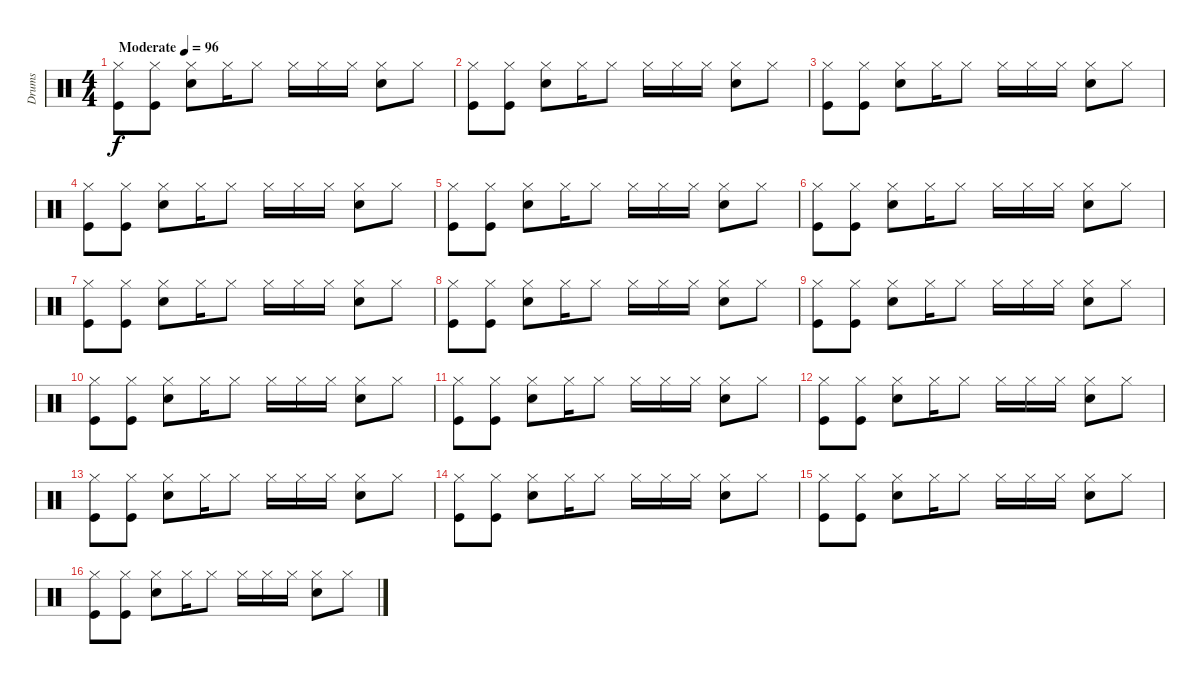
\track ("Drums" "Drums") {instrument percussion}
\staff {score}
\articulation defaults
\ts (4 4)
\tempo (96 "Moderate")
\clef neutral
\ks c
("Kick (hit)" "Hi-Hat (closed)").8{dy f} ("Kick (hit)" "Hi-Hat (closed)").8 ("Electric Snare (hit)" "Hi-Hat (closed)").8 "Hi-Hat (closed)".16 "Hi-Hat (closed)".8 "Hi-Hat (closed)".16 "Hi-Hat (closed)".16 "Hi-Hat (closed)".16 ("Electric Snare (hit)" "Hi-Hat (closed)").8 "Hi-Hat (closed)".8 |
("Kick (hit)" "Hi-Hat (closed)").8 ("Kick (hit)" "Hi-Hat (closed)").8 ("Electric Snare (hit)" "Hi-Hat (closed)").8 "Hi-Hat (closed)".16 "Hi-Hat (closed)".8 "Hi-Hat (closed)".16 "Hi-Hat (closed)".16 "Hi-Hat (closed)".16 ("Electric Snare (hit)" "Hi-Hat (closed)").8 "Hi-Hat (closed)".8 |
("Kick (hit)" "Hi-Hat (closed)").8 ("Kick (hit)" "Hi-Hat (closed)").8 ("Electric Snare (hit)" "Hi-Hat (closed)").8 "Hi-Hat (closed)".16 "Hi-Hat (closed)".8 "Hi-Hat (closed)".16 "Hi-Hat (closed)".16 "Hi-Hat (closed)".16 ("Electric Snare (hit)" "Hi-Hat (closed)").8 "Hi-Hat (closed)".8 |
("Kick (hit)" "Hi-Hat (closed)").8 ("Kick (hit)" "Hi-Hat (closed)").8 ("Electric Snare (hit)" "Hi-Hat (closed)").8 "Hi-Hat (closed)".16 "Hi-Hat (closed)".8 "Hi-Hat (closed)".16 "Hi-Hat (closed)".16 "Hi-Hat (closed)".16 ("Electric Snare (hit)" "Hi-Hat (closed)").8 "Hi-Hat (closed)".8 |
("Kick (hit)" "Hi-Hat (closed)").8 ("Kick (hit)" "Hi-Hat (closed)").8 ("Electric Snare (hit)" "Hi-Hat (closed)").8 "Hi-Hat (closed)".16 "Hi-Hat (closed)".8 "Hi-Hat (closed)".16 "Hi-Hat (closed)".16 "Hi-Hat (closed)".16 ("Electric Snare (hit)" "Hi-Hat (closed)").8 "Hi-Hat (closed)".8 |
("Kick (hit)" "Hi-Hat (closed)").8 ("Kick (hit)" "Hi-Hat (closed)").8 ("Electric Snare (hit)" "Hi-Hat (closed)").8 "Hi-Hat (closed)".16 "Hi-Hat (closed)".8 "Hi-Hat (closed)".16 "Hi-Hat (closed)".16 "Hi-Hat (closed)".16 ("Electric Snare (hit)" "Hi-Hat (closed)").8 "Hi-Hat (closed)".8 |
("Kick (hit)" "Hi-Hat (closed)").8 ("Kick (hit)" "Hi-Hat (closed)").8 ("Electric Snare (hit)" "Hi-Hat (closed)").8 "Hi-Hat (closed)".16 "Hi-Hat (closed)".8 "Hi-Hat (closed)".16 "Hi-Hat (closed)".16 "Hi-Hat (closed)".16 ("Electric Snare (hit)" "Hi-Hat (closed)").8 "Hi-Hat (closed)".8 |
("Kick (hit)" "Hi-Hat (closed)").8 ("Kick (hit)" "Hi-Hat (closed)").8 ("Electric Snare (hit)" "Hi-Hat (closed)").8 "Hi-Hat (closed)".16 "Hi-Hat (closed)".8 "Hi-Hat (closed)".16 "Hi-Hat (closed)".16 "Hi-Hat (closed)".16 ("Electric Snare (hit)" "Hi-Hat (closed)").8 "Hi-Hat (closed)".8 |
("Kick (hit)" "Hi-Hat (closed)").8 ("Kick (hit)" "Hi-Hat (closed)").8 ("Electric Snare (hit)" "Hi-Hat (closed)").8 "Hi-Hat (closed)".16 "Hi-Hat (closed)".8 "Hi-Hat (closed)".16 "Hi-Hat (closed)".16 "Hi-Hat (closed)".16 ("Electric Snare (hit)" "Hi-Hat (closed)").8 "Hi-Hat (closed)".8 |
("Kick (hit)" "Hi-Hat (closed)").8 ("Kick (hit)" "Hi-Hat (closed)").8 ("Electric Snare (hit)" "Hi-Hat (closed)").8 "Hi-Hat (closed)".16 "Hi-Hat (closed)".8 "Hi-Hat (closed)".16 "Hi-Hat (closed)".16 "Hi-Hat (closed)".16 ("Electric Snare (hit)" "Hi-Hat (closed)").8 "Hi-Hat (closed)".8 |
("Kick (hit)" "Hi-Hat (closed)").8 ("Kick (hit)" "Hi-Hat (closed)").8 ("Electric Snare (hit)" "Hi-Hat (closed)").8 "Hi-Hat (closed)".16 "Hi-Hat (closed)".8 "Hi-Hat (closed)".16 "Hi-Hat (closed)".16 "Hi-Hat (closed)".16 ("Electric Snare (hit)" "Hi-Hat (closed)").8 "Hi-Hat (closed)".8 |
("Kick (hit)" "Hi-Hat (closed)").8 ("Kick (hit)" "Hi-Hat (closed)").8 ("Electric Snare (hit)" "Hi-Hat (closed)").8 "Hi-Hat (closed)".16 "Hi-Hat (closed)".8 "Hi-Hat (closed)".16 "Hi-Hat (closed)".16 "Hi-Hat (closed)".16 ("Electric Snare (hit)" "Hi-Hat (closed)").8 "Hi-Hat (closed)".8 |
("Kick (hit)" "Hi-Hat (closed)").8 ("Kick (hit)" "Hi-Hat (closed)").8 ("Electric Snare (hit)" "Hi-Hat (closed)").8 "Hi-Hat (closed)".16 "Hi-Hat (closed)".8 "Hi-Hat (closed)".16 "Hi-Hat (closed)".16 "Hi-Hat (closed)".16 ("Electric Snare (hit)" "Hi-Hat (closed)").8 "Hi-Hat (closed)".8 |
("Kick (hit)" "Hi-Hat (closed)").8 ("Kick (hit)" "Hi-Hat (closed)").8 ("Electric Snare (hit)" "Hi-Hat (closed)").8 "Hi-Hat (closed)".16 "Hi-Hat (closed)".8 "Hi-Hat (closed)".16 "Hi-Hat (closed)".16 "Hi-Hat (closed)".16 ("Electric Snare (hit)" "Hi-Hat (closed)").8 "Hi-Hat (closed)".8 |
("Kick (hit)" "Hi-Hat (closed)").8 ("Kick (hit)" "Hi-Hat (closed)").8 ("Electric Snare (hit)" "Hi-Hat (closed)").8 "Hi-Hat (closed)".16 "Hi-Hat (closed)".8 "Hi-Hat (closed)".16 "Hi-Hat (closed)".16 "Hi-Hat (closed)".16 ("Electric Snare (hit)" "Hi-Hat (closed)").8 "Hi-Hat (closed)".8 |
("Kick (hit)" "Hi-Hat (closed)").8 ("Kick (hit)" "Hi-Hat (closed)").8 ("Electric Snare (hit)" "Hi-Hat (closed)").8 "Hi-Hat (closed)".16 "Hi-Hat (closed)".8 "Hi-Hat (closed)".16 "Hi-Hat (closed)".16 "Hi-Hat (closed)".16 ("Electric Snare (hit)" "Hi-Hat (closed)").8 "Hi-Hat (closed)".8
